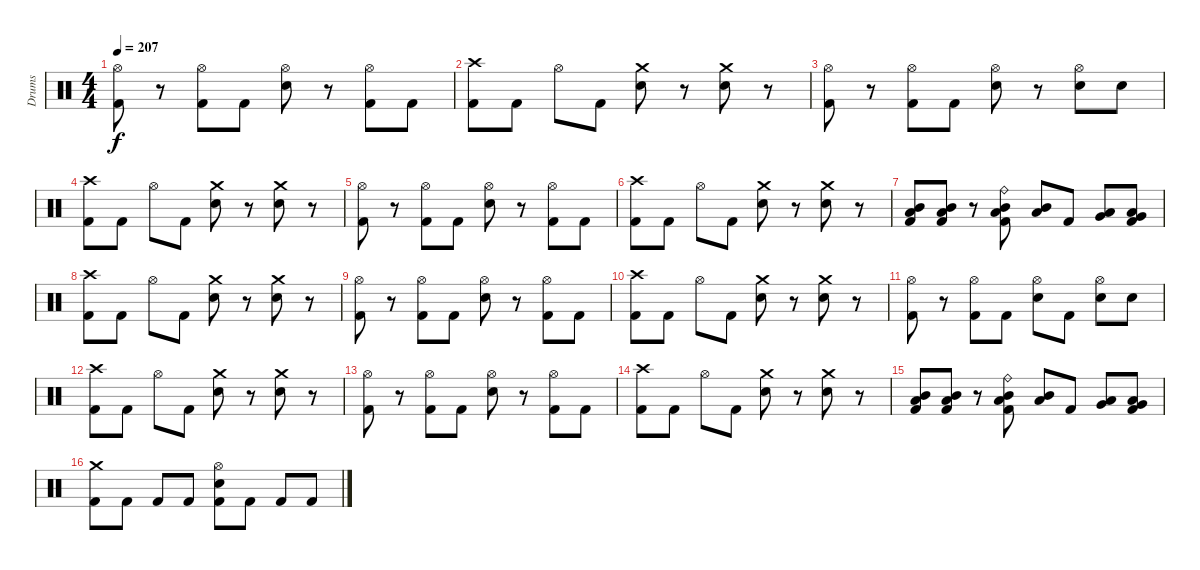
\track ("Drums" "Drums") {instrument percussion}
\staff {score}
\articulation defaults
\ts (4 4)
\tempo 207
\clef neutral
\ks c
("Hi-Hat (open)" "Kick (hit) 2").8{dy f} r.8 ("Hi-Hat (open)" "Kick (hit) 2").8 "Kick (hit) 2".8 ("Hi-Hat (open)" "Electric Snare (hit)").8 r.8 ("Hi-Hat (open)" "Kick (hit) 2").8 "Kick (hit) 2".8 |
("Crash high (hit)" "Kick (hit) 2").8 "Kick (hit) 2".8 "Hi-Hat (open)".8 "Kick (hit) 2".8 ("Crash medium (hit)" "Electric Snare (hit)").8 r.8 ("Crash medium (hit)" "Electric Snare (hit)").8 r.8 |
("Hi-Hat (open)" "Kick (hit) 2").8 r.8 ("Hi-Hat (open)" "Kick (hit) 2").8 "Kick (hit) 2".8 ("Hi-Hat (open)" "Electric Snare (hit)").8 r.8 ("Hi-Hat (open)" "Electric Snare (hit)").8 "Electric Snare (hit)".8 |
("Crash high (hit)" "Kick (hit) 2").8 "Kick (hit) 2".8 "Hi-Hat (open)".8 "Kick (hit) 2".8 ("Crash medium (hit)" "Electric Snare (hit)").8 r.8 ("Crash medium (hit)" "Electric Snare (hit)").8 r.8 |
("Hi-Hat (open)" "Kick (hit) 2").8 r.8 ("Hi-Hat (open)" "Kick (hit) 2").8 "Kick (hit) 2".8 ("Hi-Hat (open)" "Electric Snare (hit)").8 r.8 ("Hi-Hat (open)" "Kick (hit) 2").8 "Kick (hit) 2".8 |
("Crash high (hit)" "Kick (hit) 2").8 "Kick (hit) 2".8 "Hi-Hat (open)".8 "Kick (hit) 2".8 ("Crash medium (hit)" "Electric Snare (hit)").8 r.8 ("Crash medium (hit)" "Electric Snare (hit)").8 r.8 |
("Mid Tom (hit)" "Low Tom (hit)" "Kick (hit) 2").8 ("Mid Tom (hit)" "Low Tom (hit)" "Kick (hit) 2").8 r.8 ("Ride (bell)" "Mid Tom (hit)" "Low Tom (hit)" "Kick (hit) 2").8 ("Mid Tom (hit)" "Low Tom (hit)").8 "Kick (hit) 2".8 ("Low Tom (hit)" "Very Low Tom (hit)").8 ("Low Tom (hit)" "Very Low Tom (hit)" "Kick (hit) 2").8 |
("Crash high (hit)" "Kick (hit) 2").8 "Kick (hit) 2".8 "Hi-Hat (open)".8 "Kick (hit) 2".8 ("Crash medium (hit)" "Electric Snare (hit)").8 r.8 ("Crash medium (hit)" "Electric Snare (hit)").8 r.8 |
("Hi-Hat (open)" "Kick (hit) 2").8 r.8 ("Hi-Hat (open)" "Kick (hit) 2").8 "Kick (hit) 2".8 ("Hi-Hat (open)" "Electric Snare (hit)").8 r.8 ("Hi-Hat (open)" "Kick (hit) 2").8 "Kick (hit) 2".8 |
("Crash high (hit)" "Kick (hit) 2").8 "Kick (hit) 2".8 "Hi-Hat (open)".8 "Kick (hit) 2".8 ("Crash medium (hit)" "Electric Snare (hit)").8 r.8 ("Crash medium (hit)" "Electric Snare (hit)").8 r.8 |
("Hi-Hat (open)" "Kick (hit) 2").8 r.8 ("Hi-Hat (open)" "Kick (hit) 2").8 "Kick (hit) 2".8 ("Hi-Hat (open)" "Electric Snare (hit)").8 "Kick (hit) 2".8 ("Hi-Hat (open)" "Electric Snare (hit)").8 "Electric Snare (hit)".8 |
("Crash high (hit)" "Kick (hit) 2").8 "Kick (hit) 2".8 "Hi-Hat (open)".8 "Kick (hit) 2".8 ("Crash medium (hit)" "Electric Snare (hit)").8 r.8 ("Crash medium (hit)" "Electric Snare (hit)").8 r.8 |
("Hi-Hat (open)" "Kick (hit) 2").8 r.8 ("Hi-Hat (open)" "Kick (hit) 2").8 "Kick (hit) 2".8 ("Hi-Hat (open)" "Electric Snare (hit)").8 r.8 ("Hi-Hat (open)" "Kick (hit) 2").8 "Kick (hit) 2".8 |
("Crash high (hit)" "Kick (hit) 2").8 "Kick (hit) 2".8 "Hi-Hat (open)".8 "Kick (hit) 2".8 ("Crash medium (hit)" "Electric Snare (hit)").8 r.8 ("Crash medium (hit)" "Electric Snare (hit)").8 r.8 |
("Mid Tom (hit)" "Low Tom (hit)" "Kick (hit) 2").8 ("Mid Tom (hit)" "Low Tom (hit)" "Kick (hit) 2").8 r.8 ("Ride (bell)" "Mid Tom (hit)" "Low Tom (hit)" "Kick (hit) 2").8 ("Mid Tom (hit)" "Low Tom (hit)").8 "Kick (hit) 2".8 ("Low Tom (hit)" "Very Low Tom (hit)").8 ("Low Tom (hit)" "Very Low Tom (hit)" "Kick (hit) 2").8 |
("Crash medium (hit)" "Kick (hit) 2").8 "Kick (hit) 2".8 "Kick (hit) 2".8 "Kick (hit) 2".8 ("Hi-Hat (open)" "Electric Snare (hit)" "Kick (hit) 2").8 "Kick (hit) 2".8 "Kick (hit) 2".8 "Kick (hit) 2".8
